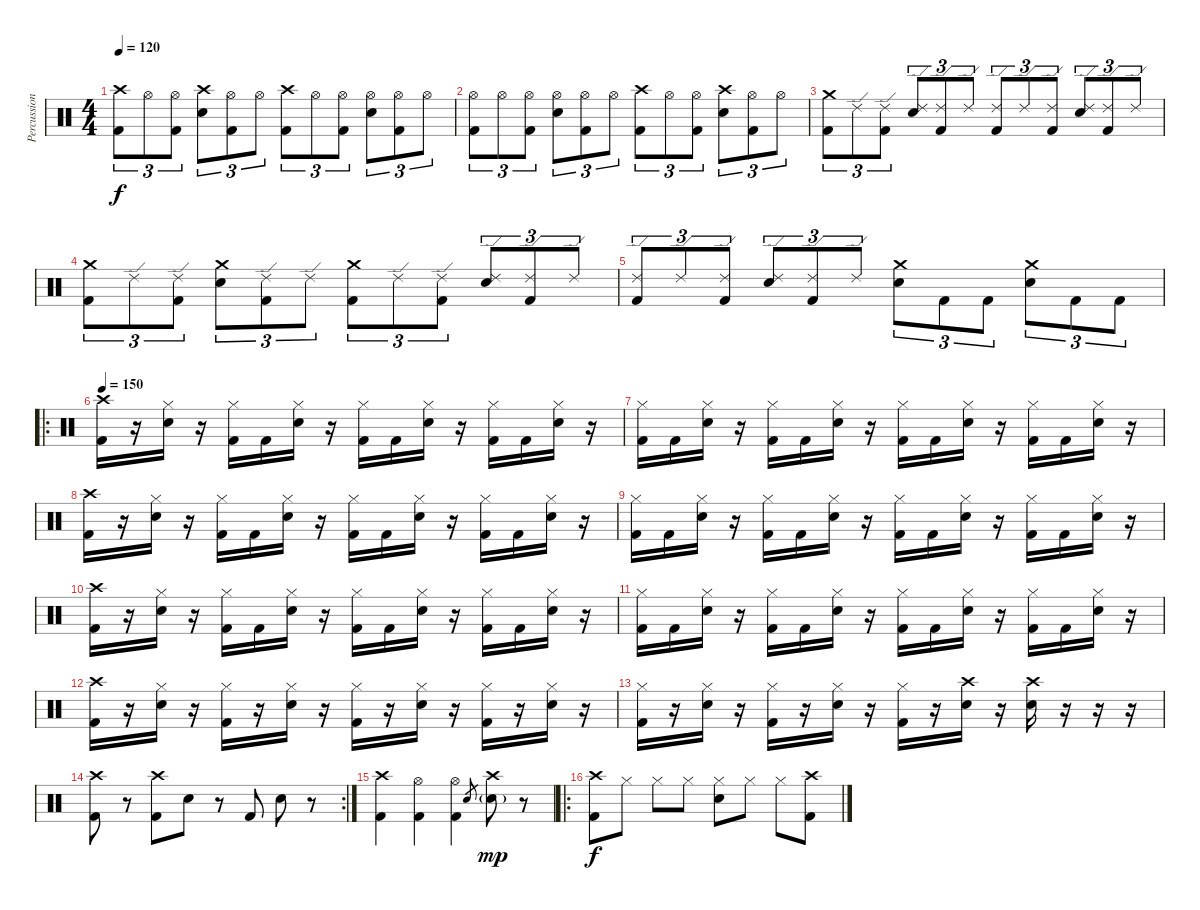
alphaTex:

\track ("Percussion" "Percussion") {instrument percussion}
\staff {score}
\articulation defaults
\ts (4 4)
\tempo 120
\clef neutral
\ks c
("Crash high (hit)" "Kick (hit) 2").8{tu (3 2) dy f} "Hi-Hat (open)".8{tu (3 2)} ("Hi-Hat (open)" "Kick (hit) 2").8{tu (3 2)} ("Crash high (hit)" "Snare (hit) 2").8{tu (3 2)} ("Hi-Hat (open)" "Kick (hit) 2").8{tu (3 2)} "Hi-Hat (open)".8{tu (3 2)} ("Crash high (hit)" "Kick (hit) 2").8{tu (3 2)} "Hi-Hat (open)".8{tu (3 2)} ("Hi-Hat (open)" "Kick (hit) 2").8{tu (3 2)} ("Hi-Hat (open)" "Snare (hit) 2").8{tu (3 2)} ("Hi-Hat (open)" "Kick (hit) 2").8{tu (3 2)} "Hi-Hat (open)".8{tu (3 2)} |
("Hi-Hat (open)" "Kick (hit) 2").8{tu (3 2)} "Hi-Hat (open)".8{tu (3 2)} ("Hi-Hat (open)" "Kick (hit) 2").8{tu (3 2)} ("Hi-Hat (open)" "Snare (hit) 2").8{tu (3 2)} ("Hi-Hat (open)" "Kick (hit) 2").8{tu (3 2)} "Hi-Hat (open)".8{tu (3 2)} ("Crash high (hit)" "Kick (hit) 2").8{tu (3 2)} "Hi-Hat (open)".8{tu (3 2)} ("Hi-Hat (open)" "Kick (hit) 2").8{tu (3 2)} ("Crash high (hit)" "Snare (hit) 2").8{tu (3 2)} ("Hi-Hat (open)" "Kick (hit) 2").8{tu (3 2)} "Hi-Hat (open)".8{tu (3 2)} |
("Crash medium (hit)" "Kick (hit) 2").8{tu (3 2)} "Ride (edge) 2".8{tu (3 2)} ("Ride (edge) 2" "Kick (hit) 2").8{tu (3 2)} ("Ride (edge) 2" "Snare (hit) 2").8{tu (3 2)} ("Ride (edge) 2" "Kick (hit) 2").8{tu (3 2)} "Ride (edge) 2".8{tu (3 2)} ("Ride (edge) 2" "Kick (hit) 2").8{tu (3 2)} "Ride (edge) 2".8{tu (3 2)} ("Ride (edge) 2" "Kick (hit) 2").8{tu (3 2)} ("Ride (edge) 2" "Snare (hit) 2").8{tu (3 2)} ("Ride (edge) 2" "Kick (hit) 2").8{tu (3 2)} "Ride (edge) 2".8{tu (3 2)} |
("Crash medium (hit)" "Kick (hit) 2").8{tu (3 2)} "Ride (edge) 2".8{tu (3 2)} ("Ride (edge) 2" "Kick (hit) 2").8{tu (3 2)} ("Crash medium (hit)" "Snare (hit) 2").8{tu (3 2)} ("Ride (edge) 2" "Kick (hit) 2").8{tu (3 2)} "Ride (edge) 2".8{tu (3 2)} ("Crash medium (hit)" "Kick (hit) 2").8{tu (3 2)} "Ride (edge) 2".8{tu (3 2)} ("Ride (edge) 2" "Kick (hit) 2").8{tu (3 2)} ("Ride (edge) 2" "Snare (hit) 2").8{tu (3 2)} ("Ride (edge) 2" "Kick (hit) 2").8{tu (3 2)} "Ride (edge) 2".8{tu (3 2)} |
("Ride (edge) 2" "Kick (hit) 2").8{tu (3 2)} "Ride (edge) 2".8{tu (3 2)} ("Ride (edge) 2" "Kick (hit) 2").8{tu (3 2)} ("Ride (edge) 2" "Snare (hit) 2").8{tu (3 2)} ("Ride (edge) 2" "Kick (hit) 2").8{tu (3 2)} "Ride (edge) 2".8{tu (3 2)} ("Crash medium (hit)" "Snare (hit) 2").8{tu (3 2)} "Kick (hit) 2".8{tu (3 2)} "Kick (hit) 2".8{tu (3 2)} ("Crash medium (hit)" "Snare (hit) 2").8{tu (3 2)} "Kick (hit) 2".8{tu (3 2)} "Kick (hit) 2".8{tu (3 2)} |
\ro
\tempo 150
("Kick (hit) 2" "Crash high (hit)").16 r.16 ("Hi-Hat (closed)" "Snare (hit) 2").16 r.16 ("Kick (hit) 2" "Hi-Hat (closed)").16 "Kick (hit) 2".16 ("Snare (hit) 2" "Hi-Hat (closed)").16 r.16 ("Kick (hit) 2" "Hi-Hat (closed)").16 "Kick (hit) 2".16 ("Snare (hit) 2" "Hi-Hat (closed)").16 r.16 ("Kick (hit) 2" "Hi-Hat (closed)").16 "Kick (hit) 2".16 ("Snare (hit) 2" "Hi-Hat (closed)").16 r.16 |
("Kick (hit) 2" "Hi-Hat (closed)").16 "Kick (hit) 2".16 ("Snare (hit) 2" "Hi-Hat (closed)").16 r.16 ("Kick (hit) 2" "Hi-Hat (closed)").16 "Kick (hit) 2".16 ("Snare (hit) 2" "Hi-Hat (closed)").16 r.16 ("Kick (hit) 2" "Hi-Hat (closed)").16 "Kick (hit) 2".16 ("Snare (hit) 2" "Hi-Hat (closed)").16 r.16 ("Kick (hit) 2" "Hi-Hat (closed)").16 "Kick (hit) 2".16 ("Snare (hit) 2" "Hi-Hat (closed)").16 r.16 |
("Kick (hit) 2" "Crash high (hit)").16 r.16 ("Hi-Hat (closed)" "Snare (hit) 2").16 r.16 ("Kick (hit) 2" "Hi-Hat (closed)").16 "Kick (hit) 2".16 ("Snare (hit) 2" "Hi-Hat (closed)").16 r.16 ("Kick (hit) 2" "Hi-Hat (closed)").16 "Kick (hit) 2".16 ("Snare (hit) 2" "Hi-Hat (closed)").16 r.16 ("Kick (hit) 2" "Hi-Hat (closed)").16 "Kick (hit) 2".16 ("Snare (hit) 2" "Hi-Hat (closed)").16 r.16 |
("Kick (hit) 2" "Hi-Hat (closed)").16 "Kick (hit) 2".16 ("Snare (hit) 2" "Hi-Hat (closed)").16 r.16 ("Kick (hit) 2" "Hi-Hat (closed)").16 "Kick (hit) 2".16 ("Snare (hit) 2" "Hi-Hat (closed)").16 r.16 ("Kick (hit) 2" "Hi-Hat (closed)").16 "Kick (hit) 2".16 ("Snare (hit) 2" "Hi-Hat (closed)").16 r.16 ("Kick (hit) 2" "Hi-Hat (closed)").16 "Kick (hit) 2".16 ("Snare (hit) 2" "Hi-Hat (closed)").16 r.16 |
("Kick (hit) 2" "Crash high (hit)").16 r.16 ("Hi-Hat (closed)" "Snare (hit) 2").16 r.16 ("Kick (hit) 2" "Hi-Hat (closed)").16 "Kick (hit) 2".16 ("Snare (hit) 2" "Hi-Hat (closed)").16 r.16 ("Kick (hit) 2" "Hi-Hat (closed)").16 "Kick (hit) 2".16 ("Snare (hit) 2" "Hi-Hat (closed)").16 r.16 ("Kick (hit) 2" "Hi-Hat (closed)").16 "Kick (hit) 2".16 ("Snare (hit) 2" "Hi-Hat (closed)").16 r.16 |
("Kick (hit) 2" "Hi-Hat (closed)").16 "Kick (hit) 2".16 ("Snare (hit) 2" "Hi-Hat (closed)").16 r.16 ("Kick (hit) 2" "Hi-Hat (closed)").16 "Kick (hit) 2".16 ("Snare (hit) 2" "Hi-Hat (closed)").16 r.16 ("Kick (hit) 2" "Hi-Hat (closed)").16 "Kick (hit) 2".16 ("Snare (hit) 2" "Hi-Hat (closed)").16 r.16 ("Kick (hit) 2" "Hi-Hat (closed)").16 "Kick (hit) 2".16 ("Snare (hit) 2" "Hi-Hat (closed)").16 r.16 |
("Kick (hit) 2" "Crash high (hit)").16 r.16 ("Hi-Hat (closed)" "Snare (hit) 2").16 r.16 ("Kick (hit) 2" "Hi-Hat (closed)").16 r.16 ("Snare (hit) 2" "Hi-Hat (closed)").16 r.16 ("Kick (hit) 2" "Hi-Hat (closed)").16 r.16 ("Snare (hit) 2" "Hi-Hat (closed)").16 r.16 ("Kick (hit) 2" "Hi-Hat (closed)").16 r.16 ("Snare (hit) 2" "Hi-Hat (closed)").16 r.16 |
("Kick (hit) 2" "Hi-Hat (closed)").16 r.16 ("Snare (hit) 2" "Hi-Hat (closed)").16 r.16 ("Kick (hit) 2" "Hi-Hat (closed)").16 r.16 ("Snare (hit) 2" "Hi-Hat (closed)").16 r.16 ("Kick (hit) 2" "Hi-Hat (closed)").16 r.16 ("Snare (hit) 2" "Crash high (hit)").16 r.16 ("Snare (hit) 2" "Crash high (hit)").16 r.16 r.16 r.16 |
\rc 2
("Crash high (hit)" "Kick (hit) 2").8 r.8 ("Crash high (hit)" "Kick (hit) 2").8 "Snare (hit) 2".8 r.8 "Kick (hit) 2".8 "Snare (hit) 2".8 r.8 |
("Crash high (hit)" "Kick (hit) 2").4 ("Hi-Hat (open)" "Kick (hit) 2").4 ("Hi-Hat (open)" "Kick (hit) 2").4 "Snare (hit) 2".8{gr} ("Snare (hit) 2"{g} "Crash high (hit)").8{dy mp} r.8 |
\ro
("Crash high (hit)" "Kick (hit) 2").8{dy f} "Hi-Hat (closed)".8 "Hi-Hat (closed)".8 "Hi-Hat (closed)".8 ("Hi-Hat (closed)" "Snare (hit) 2").8 "Hi-Hat (closed)".8 "Hi-Hat (closed)".8 ("Crash high (hit)" "Kick (hit) 2").8
